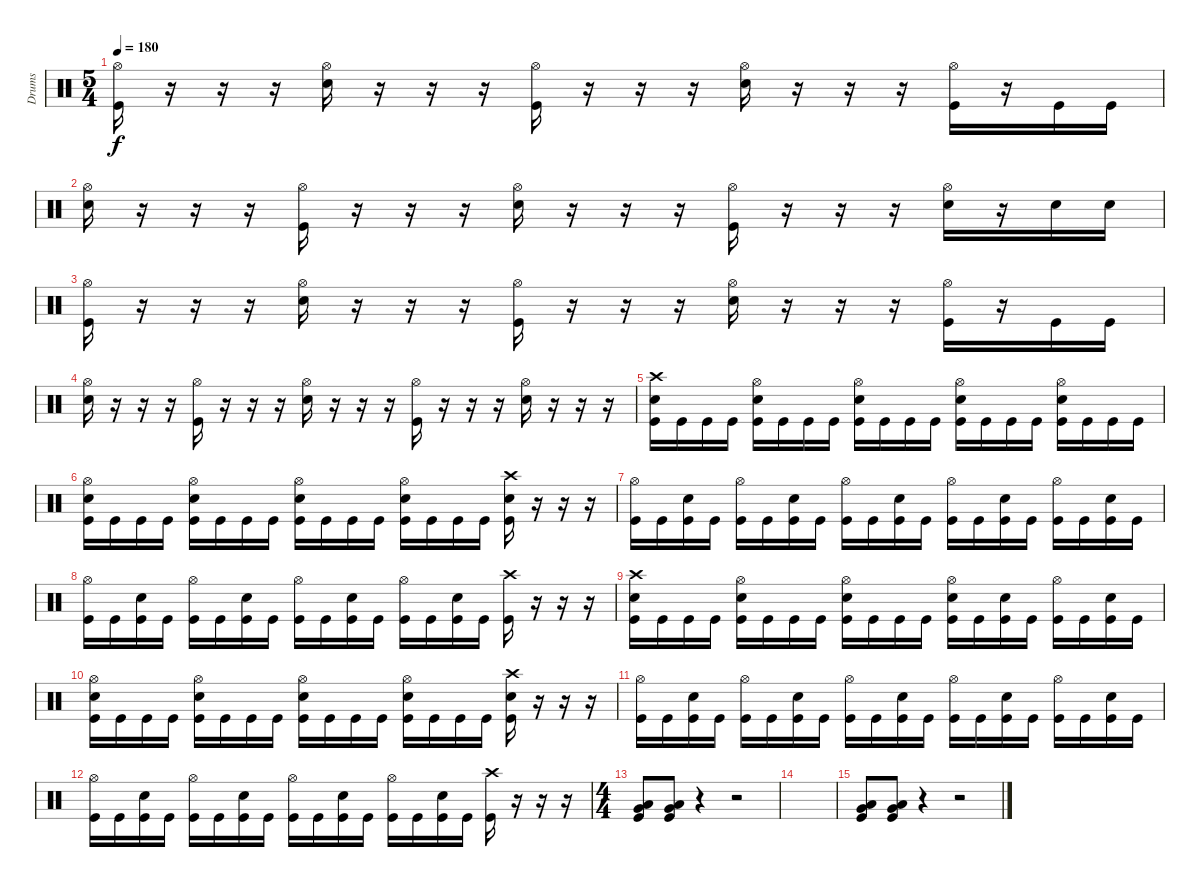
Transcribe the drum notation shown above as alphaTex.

\track ("Drums" "Drums") {instrument percussion}
\staff {score}
\articulation defaults
\ts (5 4)
\tempo 180
\clef neutral
\ks c
("Hi-Hat (open)" "Kick (hit)").16{dy f} r.16 r.16 r.16 ("Hi-Hat (open)" "Snare (hit) 2").16 r.16 r.16 r.16 ("Hi-Hat (open)" "Kick (hit)").16 r.16 r.16 r.16 ("Hi-Hat (open)" "Snare (hit) 2").16 r.16 r.16 r.16 ("Hi-Hat (open)" "Kick (hit)").16 r.16 "Kick (hit)".16 "Kick (hit)".16 |
("Hi-Hat (open)" "Snare (hit) 2").16 r.16 r.16 r.16 ("Hi-Hat (open)" "Kick (hit)").16 r.16 r.16 r.16 ("Hi-Hat (open)" "Snare (hit) 2").16 r.16 r.16 r.16 ("Hi-Hat (open)" "Kick (hit)").16 r.16 r.16 r.16 ("Hi-Hat (open)" "Snare (hit) 2").16 r.16 "Snare (hit) 2".16 "Snare (hit) 2".16 |
("Hi-Hat (open)" "Kick (hit)").16 r.16 r.16 r.16 ("Hi-Hat (open)" "Snare (hit) 2").16 r.16 r.16 r.16 ("Hi-Hat (open)" "Kick (hit)").16 r.16 r.16 r.16 ("Hi-Hat (open)" "Snare (hit) 2").16 r.16 r.16 r.16 ("Hi-Hat (open)" "Kick (hit)").16 r.16 "Kick (hit)".16 "Kick (hit)".16 |
("Hi-Hat (open)" "Snare (hit) 2").16 r.16 r.16 r.16 ("Hi-Hat (open)" "Kick (hit)").16 r.16 r.16 r.16 ("Hi-Hat (open)" "Snare (hit) 2").16 r.16 r.16 r.16 ("Hi-Hat (open)" "Kick (hit)").16 r.16 r.16 r.16 ("Hi-Hat (open)" "Snare (hit) 2").16 r.16 r.16 r.16 |
("Crash high (hit)" "Snare (hit) 2" "Kick (hit)").16 "Kick (hit)".16 "Kick (hit)".16 "Kick (hit)".16 ("Hi-Hat (open)" "Snare (hit) 2" "Kick (hit)").16 "Kick (hit)".16 "Kick (hit)".16 "Kick (hit)".16 ("Hi-Hat (open)" "Snare (hit) 2" "Kick (hit)").16 "Kick (hit)".16 "Kick (hit)".16 "Kick (hit)".16 ("Hi-Hat (open)" "Snare (hit) 2" "Kick (hit)").16 "Kick (hit)".16 "Kick (hit)".16 "Kick (hit)".16 ("Hi-Hat (open)" "Snare (hit) 2" "Kick (hit)").16 "Kick (hit)".16 "Kick (hit)".16 "Kick (hit)".16 |
("Hi-Hat (open)" "Snare (hit) 2" "Kick (hit)").16 "Kick (hit)".16 "Kick (hit)".16 "Kick (hit)".16 ("Hi-Hat (open)" "Snare (hit) 2" "Kick (hit)").16 "Kick (hit)".16 "Kick (hit)".16 "Kick (hit)".16 ("Hi-Hat (open)" "Snare (hit) 2" "Kick (hit)").16 "Kick (hit)".16 "Kick (hit)".16 "Kick (hit)".16 ("Hi-Hat (open)" "Snare (hit) 2" "Kick (hit)").16 "Kick (hit)".16 "Kick (hit)".16 "Kick (hit)".16 ("Crash high (hit)" "Snare (hit) 2" "Kick (hit)").16 r.16 r.16 r.16 |
("Hi-Hat (open)" "Kick (hit)").16 "Kick (hit)".16 ("Snare (hit) 2" "Kick (hit)").16 "Kick (hit)".16 ("Hi-Hat (open)" "Kick (hit)").16 "Kick (hit)".16 ("Snare (hit) 2" "Kick (hit)").16 "Kick (hit)".16 ("Hi-Hat (open)" "Kick (hit)").16 "Kick (hit)".16 ("Snare (hit) 2" "Kick (hit)").16 "Kick (hit)".16 ("Hi-Hat (open)" "Kick (hit)").16 "Kick (hit)".16 ("Snare (hit) 2" "Kick (hit)").16 "Kick (hit)".16 ("Hi-Hat (open)" "Kick (hit)").16 "Kick (hit)".16 ("Snare (hit) 2" "Kick (hit)").16 "Kick (hit)".16 |
("Hi-Hat (open)" "Kick (hit)").16 "Kick (hit)".16 ("Snare (hit) 2" "Kick (hit)").16 "Kick (hit)".16 ("Hi-Hat (open)" "Kick (hit)").16 "Kick (hit)".16 ("Snare (hit) 2" "Kick (hit)").16 "Kick (hit)".16 ("Hi-Hat (open)" "Kick (hit)").16 "Kick (hit)".16 ("Snare (hit) 2" "Kick (hit)").16 "Kick (hit)".16 ("Hi-Hat (open)" "Kick (hit)").16 "Kick (hit)".16 ("Snare (hit) 2" "Kick (hit)").16 "Kick (hit)".16 ("Crash high (hit)" "Kick (hit)").16 r.16 r.16 r.16 |
("Crash high (hit)" "Snare (hit) 2" "Kick (hit)").16 "Kick (hit)".16 "Kick (hit)".16 "Kick (hit)".16 ("Hi-Hat (open)" "Snare (hit) 2" "Kick (hit)").16 "Kick (hit)".16 "Kick (hit)".16 "Kick (hit)".16 ("Hi-Hat (open)" "Snare (hit) 2" "Kick (hit)").16 "Kick (hit)".16 "Kick (hit)".16 "Kick (hit)".16 ("Hi-Hat (open)" "Snare (hit) 2" "Kick (hit)").16 "Kick (hit)".16 ("Snare (hit) 2" "Kick (hit)").16 "Kick (hit)".16 ("Hi-Hat (open)" "Kick (hit)").16 "Kick (hit)".16 ("Snare (hit) 2" "Kick (hit)").16 "Kick (hit)".16 |
("Hi-Hat (open)" "Snare (hit) 2" "Kick (hit)").16 "Kick (hit)".16 "Kick (hit)".16 "Kick (hit)".16 ("Hi-Hat (open)" "Snare (hit) 2" "Kick (hit)").16 "Kick (hit)".16 "Kick (hit)".16 "Kick (hit)".16 ("Hi-Hat (open)" "Snare (hit) 2" "Kick (hit)").16 "Kick (hit)".16 "Kick (hit)".16 "Kick (hit)".16 ("Hi-Hat (open)" "Snare (hit) 2" "Kick (hit)").16 "Kick (hit)".16 "Kick (hit)".16 "Kick (hit)".16 ("Crash high (hit)" "Snare (hit) 2" "Kick (hit)").16 r.16 r.16 r.16 |
("Hi-Hat (open)" "Kick (hit)").16 "Kick (hit)".16 ("Snare (hit) 2" "Kick (hit)").16 "Kick (hit)".16 ("Hi-Hat (open)" "Kick (hit)").16 "Kick (hit)".16 ("Snare (hit) 2" "Kick (hit)").16 "Kick (hit)".16 ("Hi-Hat (open)" "Kick (hit)").16 "Kick (hit)".16 ("Snare (hit) 2" "Kick (hit)").16 "Kick (hit)".16 ("Hi-Hat (open)" "Kick (hit)").16 "Kick (hit)".16 ("Snare (hit) 2" "Kick (hit)").16 "Kick (hit)".16 ("Hi-Hat (open)" "Kick (hit)").16 "Kick (hit)".16 ("Snare (hit) 2" "Kick (hit)").16 "Kick (hit)".16 |
("Hi-Hat (open)" "Kick (hit)").16 "Kick (hit)".16 ("Snare (hit) 2" "Kick (hit)").16 "Kick (hit)".16 ("Hi-Hat (open)" "Kick (hit)").16 "Kick (hit)".16 ("Snare (hit) 2" "Kick (hit)").16 "Kick (hit)".16 ("Hi-Hat (open)" "Kick (hit)").16 "Kick (hit)".16 ("Snare (hit) 2" "Kick (hit)").16 "Kick (hit)".16 ("Hi-Hat (open)" "Kick (hit)").16 "Kick (hit)".16 ("Snare (hit) 2" "Kick (hit)").16 "Kick (hit)".16 ("Crash high (hit)" "Kick (hit)").16 r.16 r.16 r.16 |
\ts (4 4)
("Very Low Tom (hit)" "Low Floor Tom (hit)" "Kick (hit)").8 ("Very Low Tom (hit)" "Low Floor Tom (hit)" "Kick (hit)").8 r.4 r.2 |
|
("Very Low Tom (hit)" "Low Floor Tom (hit)" "Kick (hit)").8 ("Very Low Tom (hit)" "Low Floor Tom (hit)" "Kick (hit)").8 r.4 r.2
